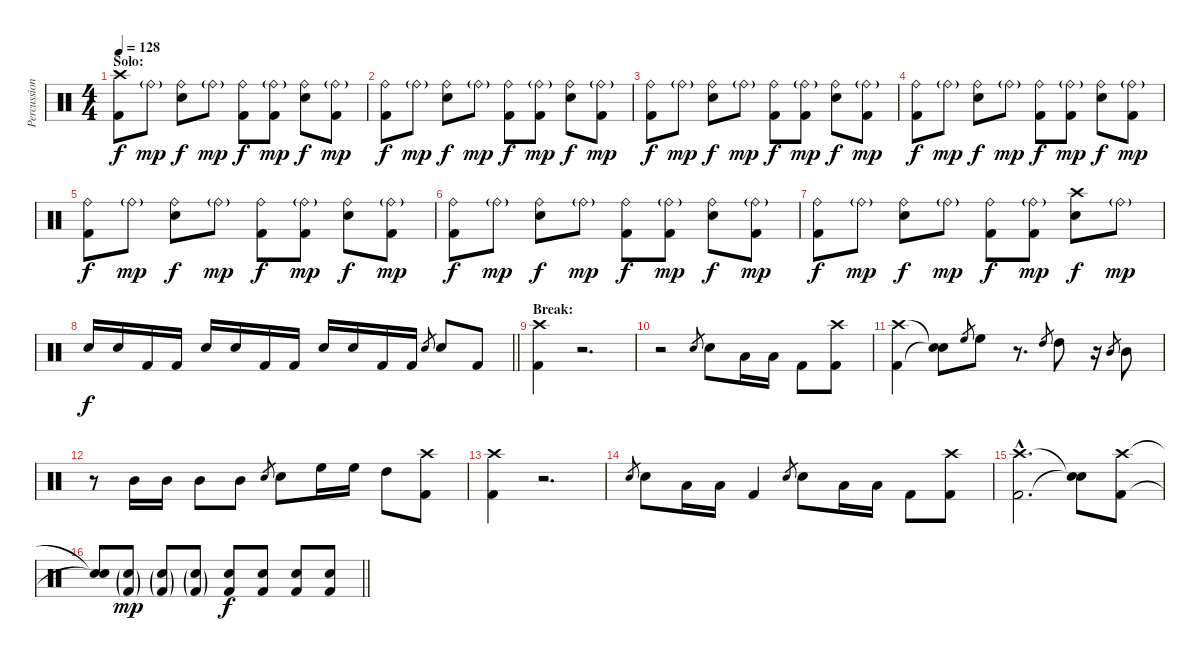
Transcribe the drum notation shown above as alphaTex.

\track ("Percussion" "Percussion") {instrument percussion}
\staff {score}
\articulation defaults
\ts (4 4)
\section ("" "Solo:")
\tempo 128
\clef neutral
\ks c
("Crash high (hit)" "Kick (hit) 2").8{dy f} "Ride (bell)"{g}.8{dy mp} ("Ride (bell)" "Electric Snare (hit)").8{dy f} "Ride (bell)"{g}.8{dy mp} ("Ride (bell)" "Kick (hit) 2").8{dy f} ("Ride (bell)"{g} "Kick (hit) 2").8{dy mp} ("Ride (bell)" "Electric Snare (hit)").8{dy f} ("Ride (bell)"{g} "Kick (hit) 2").8{dy mp} |
("Ride (bell)" "Kick (hit) 2").8{dy f} "Ride (bell)"{g}.8{dy mp} ("Ride (bell)" "Electric Snare (hit)").8{dy f} "Ride (bell)"{g}.8{dy mp} ("Ride (bell)" "Kick (hit) 2").8{dy f} ("Ride (bell)"{g} "Kick (hit) 2").8{dy mp} ("Ride (bell)" "Electric Snare (hit)").8{dy f} ("Ride (bell)"{g} "Kick (hit) 2").8{dy mp} |
("Ride (bell)" "Kick (hit) 2").8{dy f} "Ride (bell)"{g}.8{dy mp} ("Ride (bell)" "Electric Snare (hit)").8{dy f} "Ride (bell)"{g}.8{dy mp} ("Ride (bell)" "Kick (hit) 2").8{dy f} ("Ride (bell)"{g} "Kick (hit) 2").8{dy mp} ("Ride (bell)" "Electric Snare (hit)").8{dy f} ("Ride (bell)"{g} "Kick (hit) 2").8{dy mp} |
("Ride (bell)" "Kick (hit) 2").8{dy f} "Ride (bell)"{g}.8{dy mp} ("Ride (bell)" "Electric Snare (hit)").8{dy f} "Ride (bell)"{g}.8{dy mp} ("Ride (bell)" "Kick (hit) 2").8{dy f} ("Ride (bell)"{g} "Kick (hit) 2").8{dy mp} ("Ride (bell)" "Electric Snare (hit)").8{dy f} ("Ride (bell)"{g} "Kick (hit) 2").8{dy mp} |
("Ride (bell)" "Kick (hit) 2").8{dy f} "Ride (bell)"{g}.8{dy mp} ("Ride (bell)" "Electric Snare (hit)").8{dy f} "Ride (bell)"{g}.8{dy mp} ("Ride (bell)" "Kick (hit) 2").8{dy f} ("Ride (bell)"{g} "Kick (hit) 2").8{dy mp} ("Ride (bell)" "Electric Snare (hit)").8{dy f} ("Ride (bell)"{g} "Kick (hit) 2").8{dy mp} |
("Ride (bell)" "Kick (hit) 2").8{dy f} "Ride (bell)"{g}.8{dy mp} ("Ride (bell)" "Electric Snare (hit)").8{dy f} "Ride (bell)"{g}.8{dy mp} ("Ride (bell)" "Kick (hit) 2").8{dy f} ("Ride (bell)"{g} "Kick (hit) 2").8{dy mp} ("Ride (bell)" "Electric Snare (hit)").8{dy f} ("Ride (bell)"{g} "Kick (hit) 2").8{dy mp} |
("Ride (bell)" "Kick (hit) 2").8{dy f} "Ride (bell)"{g}.8{dy mp} ("Ride (bell)" "Electric Snare (hit)").8{dy f} "Ride (bell)"{g}.8{dy mp} ("Ride (bell)" "Kick (hit) 2").8{dy f} ("Ride (bell)"{g} "Kick (hit) 2").8{dy mp} ("Crash high (hit)" "Electric Snare (hit)").8{dy f} "Ride (bell)"{g}.8{dy mp} |
\barLineRight lightlight "Electric Snare (hit)".16{dy f} "Electric Snare (hit)".16 "Kick (hit) 2".16 "Kick (hit) 2".16 "Electric Snare (hit)".16 "Electric Snare (hit)".16 "Kick (hit) 2".16 "Kick (hit) 2".16 "Electric Snare (hit)".16 "Electric Snare (hit)".16 "Kick (hit) 2".16 "Kick (hit) 2".16 "Electric Snare (hit)".8{gr} "Electric Snare (hit)".8 "Kick (hit) 2".8
|
\section ("" "Break:")
("Crash high (hit)" "Kick (hit) 2").4 r.2{d} |
r.2 "Electric Snare (hit)".8{gr} "Electric Snare (hit)".8 "Low Tom (hit)".16 "Low Tom (hit)".16 "Kick (hit) 2".8 ("Crash high (hit)" "Kick (hit) 2").8 |
("Crash high (hit)" "Kick (hit) 2").4 ("Snare (hit)"{t} "Snare (hit)"{t}).8 "High Floor Tom (hit)".8{gr} "High Floor Tom (hit)".8 r.8{d} "High Tom (hit)".8{gr} "High Tom (hit)".8 r.16 "Mid Tom (hit)".8{gr} "Mid Tom (hit)".8 |
r.8 "Mid Tom (hit)".16 "Mid Tom (hit)".16 "Mid Tom (hit)".8 "Mid Tom (hit)".8 "Electric Snare (hit)".8{gr} "Electric Snare (hit)".8 "High Floor Tom (hit)".16 "High Floor Tom (hit)".16 "High Tom (hit)".8 ("Crash high (hit)" "Kick (hit) 2").8 |
("Crash high (hit)" "Kick (hit) 2").4 r.2{d} |
"Electric Snare (hit)".8{gr} "Electric Snare (hit)".8 "Low Tom (hit)".16 "Low Tom (hit)".16 "Kick (hit) 2".4 "Electric Snare (hit)".8{gr} "Electric Snare (hit)".8 "Low Tom (hit)".16 "Low Tom (hit)".16 "Kick (hit) 2".8 ("Crash high (hit)" "Kick (hit) 2").8 |
("Crash high (hit)"{hac} "Kick (hit) 2"{hac}).2{d} ("Snare (hit)"{t} "Snare (hit)"{t}).8 ("Crash high (hit)" "Kick (hit) 2").8 |
\barLineRight lightlight
("Snare (hit)"{t} "Snare (hit)"{t}).8 ("Electric Snare (hit)"{g} "Kick (hit) 2"{g}).8{dy mp} ("Electric Snare (hit)"{g} "Kick (hit) 2"{g}).8 ("Electric Snare (hit)"{g} "Kick (hit) 2"{g}).8 ("Electric Snare (hit)" "Kick (hit) 2").8{dy f} ("Electric Snare (hit)" "Kick (hit) 2").8 ("Electric Snare (hit)" "Kick (hit) 2").8 ("Electric Snare (hit)" "Kick (hit) 2").8
